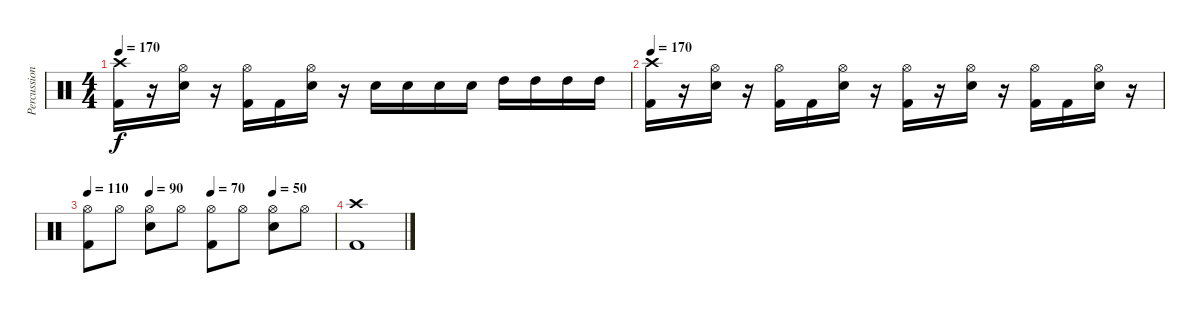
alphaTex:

\track ("Percussioni" "Percussion") {instrument percussion}
\staff {score}
\articulation defaults
\ts (4 4)
\tempo 170
\clef neutral
\ks c
("Kick (hit) 2" "Crash high (hit)").16{dy f} r.16 ("Snare (hit) 2" "Hi-Hat (open)").16 r.16 ("Kick (hit) 2" "Hi-Hat (open)").16 "Kick (hit) 2".16 ("Snare (hit) 2" "Hi-Hat (open)").16 r.16 "Snare (hit) 2".16 "Snare (hit) 2".16 "Snare (hit) 2".16 "Snare (hit) 2".16 "High Tom (hit)".16 "High Tom (hit)".16 "High Tom (hit)".16 "High Tom (hit)".16 |
\tempo 170
("Kick (hit) 2" "Crash high (hit)").16 r.16 ("Snare (hit) 2" "Hi-Hat (open)").16 r.16 ("Kick (hit) 2" "Hi-Hat (open)").16 "Kick (hit) 2".16 ("Snare (hit) 2" "Hi-Hat (open)").16 r.16 ("Kick (hit) 2" "Hi-Hat (open)").16 r.16 ("Snare (hit) 2" "Hi-Hat (open)").16 r.16 ("Kick (hit) 2" "Hi-Hat (open)").16 "Kick (hit) 2".16 ("Snare (hit) 2" "Hi-Hat (open)").16 r.16 |
\tempo 110
\tempo (90 0.25)
\tempo (70 0.5)
\tempo (50 0.75)
("Hi-Hat (open)" "Kick (hit) 2").8 "Hi-Hat (open)".8 ("Hi-Hat (open)" "Snare (hit) 2").8 "Hi-Hat (open)".8 ("Hi-Hat (open)" "Kick (hit) 2").8 "Hi-Hat (open)".8 ("Hi-Hat (open)" "Snare (hit) 2").8 "Hi-Hat (open)".8 |
("Crash high (hit)" "Kick (hit) 2").1
